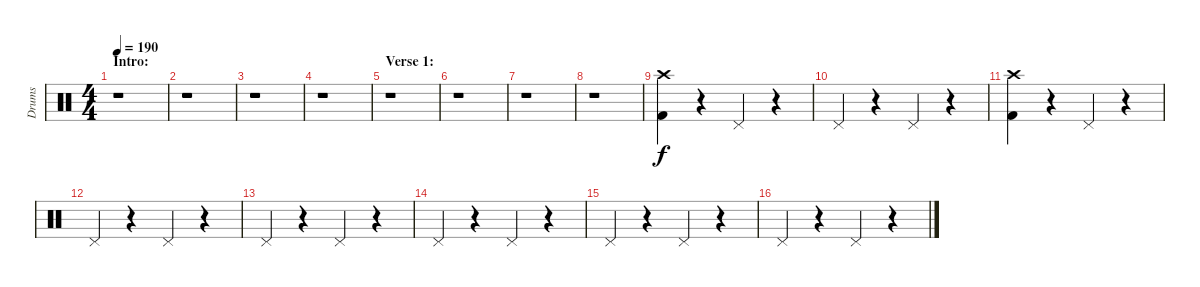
\track ("Drums" "Drums") {instrument percussion}
\staff {score}
\articulation defaults
\ts (4 4)
\section ("" "Intro:")
\tempo 190
\clef neutral
\ks c
r.1{dy f} |
r.1 |
r.1 |
r.1 |
\section ("" "Verse 1:")
r.1 |
r.1 |
r.1 |
r.1 |
("Crash high (hit)" "Kick (hit) 2").4 r.4 "Pedal Hi-Hat (hit)".4 r.4 |
"Pedal Hi-Hat (hit)".4 r.4 "Pedal Hi-Hat (hit)".4 r.4 |
("Crash high (hit)" "Kick (hit) 2").4 r.4 "Pedal Hi-Hat (hit)".4 r.4 |
"Pedal Hi-Hat (hit)".4 r.4 "Pedal Hi-Hat (hit)".4 r.4 |
"Pedal Hi-Hat (hit)".4 r.4 "Pedal Hi-Hat (hit)".4 r.4 |
"Pedal Hi-Hat (hit)".4 r.4 "Pedal Hi-Hat (hit)".4 r.4 |
"Pedal Hi-Hat (hit)".4 r.4 "Pedal Hi-Hat (hit)".4 r.4 |
"Pedal Hi-Hat (hit)".4 r.4 "Pedal Hi-Hat (hit)".4 r.4
